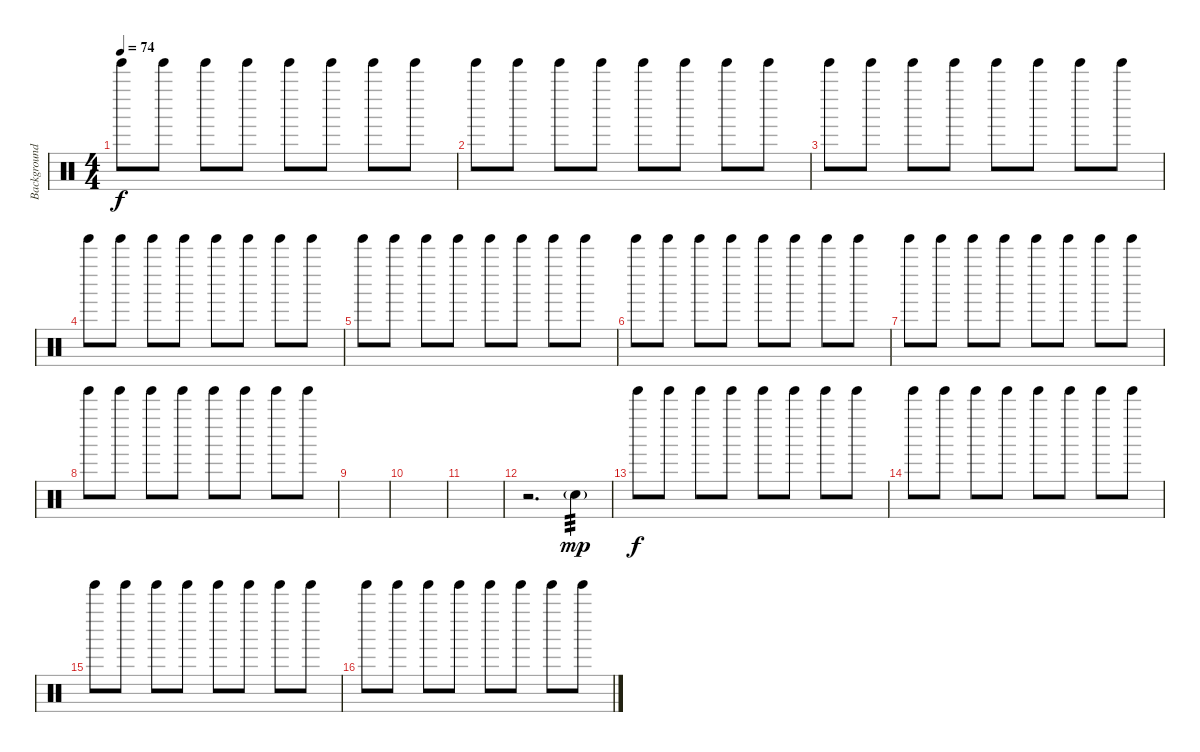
\track ("Background Percussion" "Background") {instrument percussion}
\staff {score}
\articulation defaults
\ts (4 4)
\tempo 74
\clef neutral
\ks c "Tinkle Bell (hit)".8{dy f} "Tinkle Bell (hit)".8 "Tinkle Bell (hit)".8 "Tinkle Bell (hit)".8 "Tinkle Bell (hit)".8 "Tinkle Bell (hit)".8 "Tinkle Bell (hit)".8 "Tinkle Bell (hit)".8
|
"Tinkle Bell (hit)".8 "Tinkle Bell (hit)".8 "Tinkle Bell (hit)".8 "Tinkle Bell (hit)".8 "Tinkle Bell (hit)".8 "Tinkle Bell (hit)".8 "Tinkle Bell (hit)".8 "Tinkle Bell (hit)".8 |
"Tinkle Bell (hit)".8 "Tinkle Bell (hit)".8 "Tinkle Bell (hit)".8 "Tinkle Bell (hit)".8 "Tinkle Bell (hit)".8 "Tinkle Bell (hit)".8 "Tinkle Bell (hit)".8 "Tinkle Bell (hit)".8 |
"Tinkle Bell (hit)".8 "Tinkle Bell (hit)".8 "Tinkle Bell (hit)".8 "Tinkle Bell (hit)".8 "Tinkle Bell (hit)".8 "Tinkle Bell (hit)".8 "Tinkle Bell (hit)".8 "Tinkle Bell (hit)".8 |
"Tinkle Bell (hit)".8 "Tinkle Bell (hit)".8 "Tinkle Bell (hit)".8 "Tinkle Bell (hit)".8 "Tinkle Bell (hit)".8 "Tinkle Bell (hit)".8 "Tinkle Bell (hit)".8 "Tinkle Bell (hit)".8 |
"Tinkle Bell (hit)".8 "Tinkle Bell (hit)".8 "Tinkle Bell (hit)".8 "Tinkle Bell (hit)".8 "Tinkle Bell (hit)".8 "Tinkle Bell (hit)".8 "Tinkle Bell (hit)".8 "Tinkle Bell (hit)".8 |
"Tinkle Bell (hit)".8 "Tinkle Bell (hit)".8 "Tinkle Bell (hit)".8 "Tinkle Bell (hit)".8 "Tinkle Bell (hit)".8 "Tinkle Bell (hit)".8 "Tinkle Bell (hit)".8 "Tinkle Bell (hit)".8 |
"Tinkle Bell (hit)".8 "Tinkle Bell (hit)".8 "Tinkle Bell (hit)".8 "Tinkle Bell (hit)".8 "Tinkle Bell (hit)".8 "Tinkle Bell (hit)".8 "Tinkle Bell (hit)".8 "Tinkle Bell (hit)".8 |
|
|
|
r.2{d} "Electric Snare (hit)"{g}.4{tp 3 dy mp volume 8} |
"Tinkle Bell (hit)".8{dy f volume 16} "Tinkle Bell (hit)".8 "Tinkle Bell (hit)".8 "Tinkle Bell (hit)".8 "Tinkle Bell (hit)".8 "Tinkle Bell (hit)".8 "Tinkle Bell (hit)".8 "Tinkle Bell (hit)".8 |
"Tinkle Bell (hit)".8 "Tinkle Bell (hit)".8 "Tinkle Bell (hit)".8 "Tinkle Bell (hit)".8 "Tinkle Bell (hit)".8 "Tinkle Bell (hit)".8 "Tinkle Bell (hit)".8 "Tinkle Bell (hit)".8 |
"Tinkle Bell (hit)".8 "Tinkle Bell (hit)".8 "Tinkle Bell (hit)".8 "Tinkle Bell (hit)".8 "Tinkle Bell (hit)".8 "Tinkle Bell (hit)".8 "Tinkle Bell (hit)".8 "Tinkle Bell (hit)".8 |
"Tinkle Bell (hit)".8 "Tinkle Bell (hit)".8 "Tinkle Bell (hit)".8 "Tinkle Bell (hit)".8 "Tinkle Bell (hit)".8 "Tinkle Bell (hit)".8 "Tinkle Bell (hit)".8 "Tinkle Bell (hit)".8
